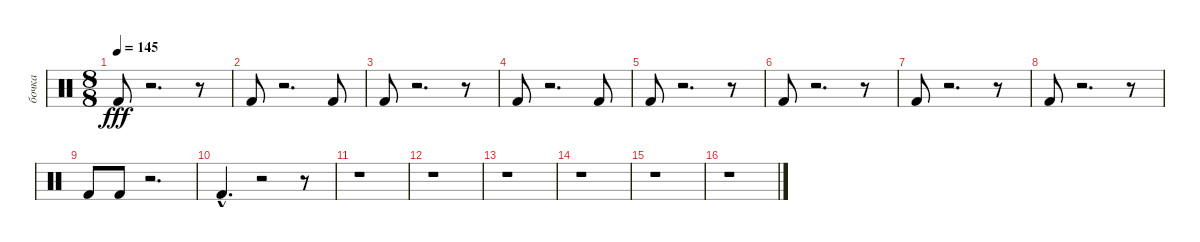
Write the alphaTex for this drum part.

\track ("бочка" "бочка") {instrument percussion}
\staff {score}
\articulation defaults
\ts (8 8)
\tempo 145
\clef neutral
\ks c "Kick (hit) 2".8{dy fff}
r.2{d} r.8 |
"Kick (hit) 2".8 r.2{d} "Kick (hit) 2".8 |
"Kick (hit) 2".8 r.2{d} r.8 |
"Kick (hit) 2".8 r.2{d} "Kick (hit) 2".8 |
"Kick (hit) 2".8 r.2{d} r.8 |
"Kick (hit) 2".8 r.2{d} r.8 |
"Kick (hit) 2".8 r.2{d} r.8 |
"Kick (hit) 2".8 r.2{d} r.8 |
"Kick (hit) 2".8 "Kick (hit) 2".8 r.2{d} |
"Kick (hit) 2"{hac}.4{d} r.2 r.8 |
r.1 |
r.1 |
r.1 |
r.1 |
r.1 |
r.1
